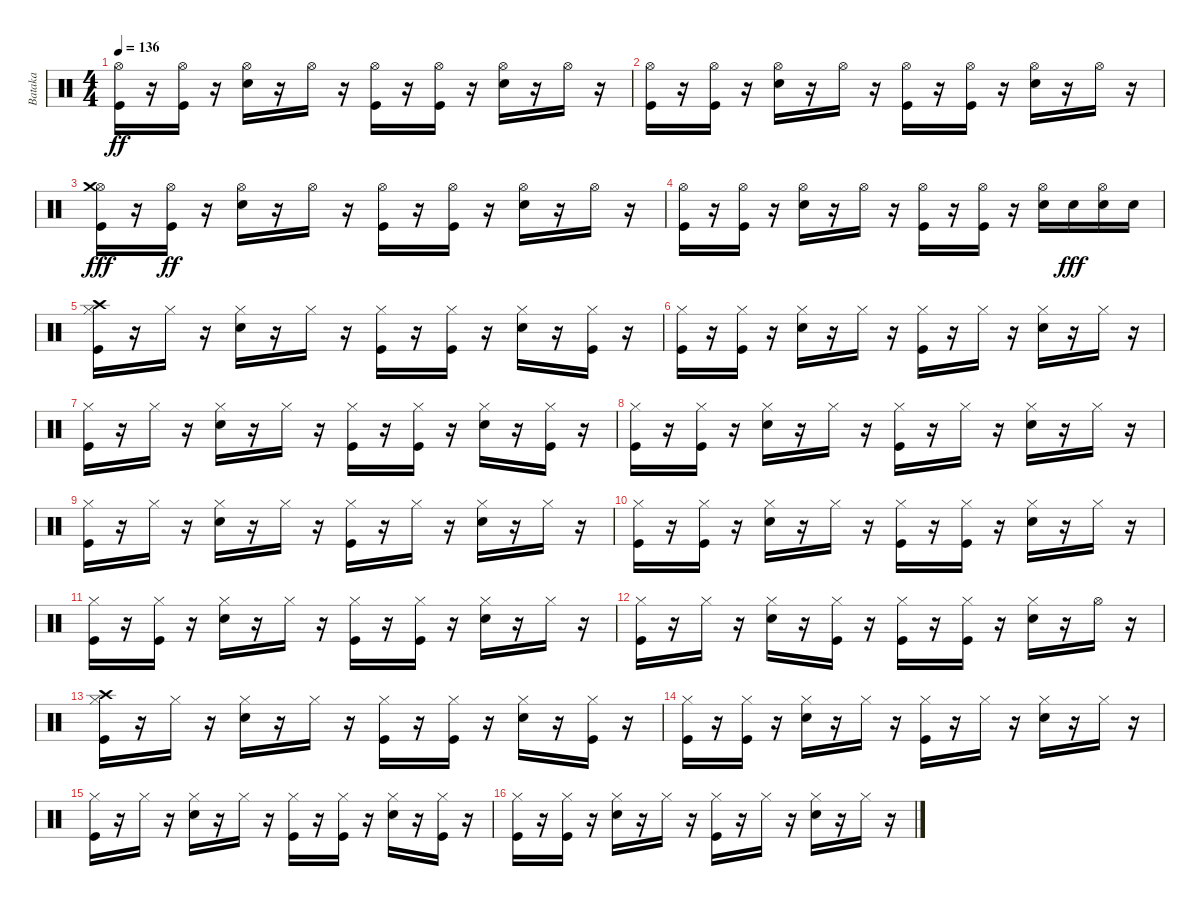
\track ("Bataka" "Bataka") {instrument percussion}
\staff {score}
\articulation defaults
\ts (4 4)
\tempo 136
\clef neutral
\ks c
("Kick (hit)" "Hi-Hat (open)").16{dy ff} r.16 ("Kick (hit)" "Hi-Hat (open)").16 r.16 ("Snare (hit) 2" "Hi-Hat (open)").16 r.16 "Hi-Hat (open)".16 r.16 ("Kick (hit)" "Hi-Hat (open)").16 r.16 ("Kick (hit)" "Hi-Hat (open)").16 r.16 ("Snare (hit) 2" "Hi-Hat (open)").16 r.16 "Hi-Hat (open)".16 r.16 |
("Kick (hit)" "Hi-Hat (open)").16 r.16 ("Kick (hit)" "Hi-Hat (open)").16 r.16 ("Snare (hit) 2" "Hi-Hat (open)").16 r.16 "Hi-Hat (open)".16 r.16 ("Kick (hit)" "Hi-Hat (open)").16 r.16 ("Kick (hit)" "Hi-Hat (open)").16 r.16 ("Snare (hit) 2" "Hi-Hat (open)").16 r.16 "Hi-Hat (open)".16 r.16 |
("Kick (hit)" "Hi-Hat (open)" "Crash medium (hit)").16{dy fff} r.16 ("Kick (hit)" "Hi-Hat (open)").16{dy ff} r.16 ("Snare (hit) 2" "Hi-Hat (open)").16 r.16 "Hi-Hat (open)".16 r.16 ("Kick (hit)" "Hi-Hat (open)").16 r.16 ("Kick (hit)" "Hi-Hat (open)").16 r.16 ("Snare (hit) 2" "Hi-Hat (open)").16 r.16 "Hi-Hat (open)".16 r.16 |
("Kick (hit)" "Hi-Hat (open)").16 r.16 ("Kick (hit)" "Hi-Hat (open)").16 r.16 ("Snare (hit) 2" "Hi-Hat (open)").16 r.16 "Hi-Hat (open)".16 r.16 ("Kick (hit)" "Hi-Hat (open)").16 r.16 ("Kick (hit)" "Hi-Hat (open)").16 r.16 ("Snare (hit) 2" "Hi-Hat (open)").16 "Snare (hit) 2".16{dy fff} ("Hi-Hat (open)" "Snare (hit) 2").16 "Snare (hit) 2".16 |
("Kick (hit)" "Hi-Hat (closed)" "Crash high (hit)").16 r.16 "Hi-Hat (closed)".16 r.16 ("Snare (hit) 2" "Hi-Hat (closed)").16 r.16 "Hi-Hat (closed)".16 r.16 ("Kick (hit)" "Hi-Hat (closed)").16 r.16 ("Kick (hit)" "Hi-Hat (closed)").16 r.16 ("Snare (hit) 2" "Hi-Hat (closed)").16 r.16 ("Kick (hit)" "Hi-Hat (closed)").16 r.16 |
("Kick (hit)" "Hi-Hat (closed)").16 r.16 ("Kick (hit)" "Hi-Hat (closed)").16 r.16 ("Snare (hit) 2" "Hi-Hat (closed)").16 r.16 "Hi-Hat (closed)".16 r.16 ("Kick (hit)" "Hi-Hat (closed)").16 r.16 "Hi-Hat (closed)".16 r.16 ("Snare (hit) 2" "Hi-Hat (closed)").16 r.16 "Hi-Hat (closed)".16 r.16 |
("Kick (hit)" "Hi-Hat (closed)").16 r.16 "Hi-Hat (closed)".16 r.16 ("Snare (hit) 2" "Hi-Hat (closed)").16 r.16 "Hi-Hat (closed)".16 r.16 ("Kick (hit)" "Hi-Hat (closed)").16 r.16 ("Kick (hit)" "Hi-Hat (closed)").16 r.16 ("Snare (hit) 2" "Hi-Hat (closed)").16 r.16 ("Kick (hit)" "Hi-Hat (closed)").16 r.16 |
("Kick (hit)" "Hi-Hat (closed)").16 r.16 ("Kick (hit)" "Hi-Hat (closed)").16 r.16 ("Snare (hit) 2" "Hi-Hat (closed)").16 r.16 "Hi-Hat (closed)".16 r.16 ("Kick (hit)" "Hi-Hat (closed)").16 r.16 "Hi-Hat (closed)".16 r.16 ("Snare (hit) 2" "Hi-Hat (closed)").16 r.16 "Hi-Hat (closed)".16 r.16 |
("Kick (hit)" "Hi-Hat (closed)").16 r.16 "Hi-Hat (closed)".16 r.16 ("Snare (hit) 2" "Hi-Hat (closed)").16 r.16 "Hi-Hat (closed)".16 r.16 ("Kick (hit)" "Hi-Hat (closed)").16 r.16 "Hi-Hat (closed)".16 r.16 ("Snare (hit) 2" "Hi-Hat (closed)").16 r.16 "Hi-Hat (closed)".16 r.16 |
("Kick (hit)" "Hi-Hat (closed)").16 r.16 ("Kick (hit)" "Hi-Hat (closed)").16 r.16 ("Snare (hit) 2" "Hi-Hat (closed)").16 r.16 "Hi-Hat (closed)".16 r.16 ("Kick (hit)" "Hi-Hat (closed)").16 r.16 ("Kick (hit)" "Hi-Hat (closed)").16 r.16 ("Snare (hit) 2" "Hi-Hat (closed)").16 r.16 "Hi-Hat (closed)".16 r.16 |
("Kick (hit)" "Hi-Hat (closed)").16 r.16 ("Kick (hit)" "Hi-Hat (closed)").16 r.16 ("Snare (hit) 2" "Hi-Hat (closed)").16 r.16 "Hi-Hat (closed)".16 r.16 ("Kick (hit)" "Hi-Hat (closed)").16 r.16 ("Kick (hit)" "Hi-Hat (closed)").16 r.16 ("Snare (hit) 2" "Hi-Hat (closed)").16 r.16 "Hi-Hat (closed)".16 r.16 |
("Kick (hit)" "Hi-Hat (closed)").16 r.16 "Hi-Hat (closed)".16 r.16 ("Snare (hit) 2" "Hi-Hat (closed)").16 r.16 ("Kick (hit)" "Hi-Hat (closed)").16 r.16 ("Kick (hit)" "Hi-Hat (closed)").16 r.16 ("Kick (hit)" "Hi-Hat (closed)").16 r.16 ("Snare (hit) 2" "Hi-Hat (closed)").16 r.16 "Hi-Hat (open)".16 r.16 |
("Kick (hit)" "Hi-Hat (closed)" "Crash high (hit)").16 r.16 "Hi-Hat (closed)".16 r.16 ("Snare (hit) 2" "Hi-Hat (closed)").16 r.16 "Hi-Hat (closed)".16 r.16 ("Kick (hit)" "Hi-Hat (closed)").16 r.16 ("Kick (hit)" "Hi-Hat (closed)").16 r.16 ("Snare (hit) 2" "Hi-Hat (closed)").16 r.16 ("Kick (hit)" "Hi-Hat (closed)").16 r.16 |
("Kick (hit)" "Hi-Hat (closed)").16 r.16 ("Kick (hit)" "Hi-Hat (closed)").16 r.16 ("Snare (hit) 2" "Hi-Hat (closed)").16 r.16 "Hi-Hat (closed)".16 r.16 ("Kick (hit)" "Hi-Hat (closed)").16 r.16 "Hi-Hat (closed)".16 r.16 ("Snare (hit) 2" "Hi-Hat (closed)").16 r.16 "Hi-Hat (closed)".16 r.16 |
("Kick (hit)" "Hi-Hat (closed)").16 r.16 "Hi-Hat (closed)".16 r.16 ("Snare (hit) 2" "Hi-Hat (closed)").16 r.16 "Hi-Hat (closed)".16 r.16 ("Kick (hit)" "Hi-Hat (closed)").16 r.16 ("Kick (hit)" "Hi-Hat (closed)").16 r.16 ("Snare (hit) 2" "Hi-Hat (closed)").16 r.16 ("Kick (hit)" "Hi-Hat (closed)").16 r.16 |
("Kick (hit)" "Hi-Hat (closed)").16 r.16 ("Kick (hit)" "Hi-Hat (closed)").16 r.16 ("Snare (hit) 2" "Hi-Hat (closed)").16 r.16 "Hi-Hat (closed)".16 r.16 ("Kick (hit)" "Hi-Hat (closed)").16 r.16 "Hi-Hat (closed)".16 r.16 ("Snare (hit) 2" "Hi-Hat (closed)").16 r.16 "Hi-Hat (closed)".16 r.16
